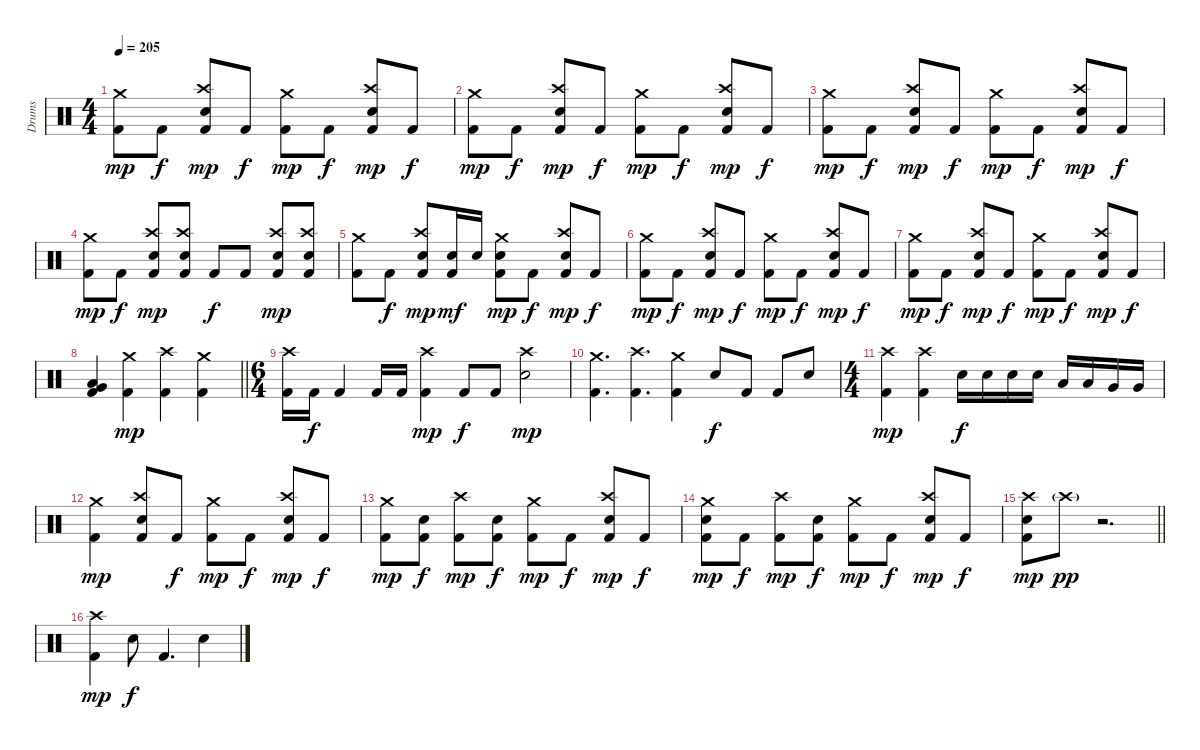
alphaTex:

\track ("Drums" "Drums") {instrument percussion}
\staff {score}
\articulation defaults
\ts (4 4)
\tempo 205
\clef neutral
\ks c
("Crash medium (hit)" "Kick (hit) 2").8{dy mp} "Kick (hit) 2".8{dy f} ("Crash high (hit)" "Electric Snare (hit)" "Kick (hit) 2").8{dy mp} "Kick (hit) 2".8{dy f} ("Crash medium (hit)" "Kick (hit) 2").8{dy mp} "Kick (hit) 2".8{dy f} ("Crash high (hit)" "Electric Snare (hit)" "Kick (hit) 2").8{dy mp} "Kick (hit) 2".8{dy f} |
("Crash medium (hit)" "Kick (hit) 2").8{dy mp} "Kick (hit) 2".8{dy f} ("Crash high (hit)" "Electric Snare (hit)" "Kick (hit) 2").8{dy mp} "Kick (hit) 2".8{dy f} ("Crash medium (hit)" "Kick (hit) 2").8{dy mp} "Kick (hit) 2".8{dy f} ("Crash high (hit)" "Electric Snare (hit)" "Kick (hit) 2").8{dy mp} "Kick (hit) 2".8{dy f} |
("Crash medium (hit)" "Kick (hit) 2").8{dy mp} "Kick (hit) 2".8{dy f} ("Crash high (hit)" "Electric Snare (hit)" "Kick (hit) 2").8{dy mp} "Kick (hit) 2".8{dy f} ("Crash medium (hit)" "Kick (hit) 2").8{dy mp} "Kick (hit) 2".8{dy f} ("Crash high (hit)" "Electric Snare (hit)" "Kick (hit) 2").8{dy mp} "Kick (hit) 2".8{dy f} |
("Crash medium (hit)" "Kick (hit) 2").8{dy mp} "Kick (hit) 2".8{dy f} ("Crash high (hit)" "Electric Snare (hit)" "Kick (hit) 2").8{dy mp} ("Crash high (hit)" "Electric Snare (hit)" "Kick (hit) 2").8 "Kick (hit) 2".8{dy f} "Kick (hit) 2".8 ("Crash high (hit)" "Electric Snare (hit)" "Kick (hit) 2").8{dy mp} ("Crash high (hit)" "Electric Snare (hit)" "Kick (hit) 2").8 |
("Crash medium (hit)" "Kick (hit) 2").8 "Kick (hit) 2".8{dy f} ("Crash high (hit)" "Electric Snare (hit)" "Kick (hit) 2").8{dy mp} ("Electric Snare (hit)" "Kick (hit) 2").16{dy mf} "Electric Snare (hit)".16 ("Crash medium (hit)" "Electric Snare (hit)" "Kick (hit) 2").8{dy mp} "Kick (hit) 2".8{dy f} ("Crash high (hit)" "Electric Snare (hit)" "Kick (hit) 2").8{dy mp} "Kick (hit) 2".8{dy f} |
("Crash medium (hit)" "Kick (hit) 2").8{dy mp} "Kick (hit) 2".8{dy f} ("Crash high (hit)" "Electric Snare (hit)" "Kick (hit) 2").8{dy mp} "Kick (hit) 2".8{dy f} ("Crash medium (hit)" "Kick (hit) 2").8{dy mp} "Kick (hit) 2".8{dy f} ("Crash high (hit)" "Electric Snare (hit)" "Kick (hit) 2").8{dy mp} "Kick (hit) 2".8{dy f} |
("Crash medium (hit)" "Kick (hit) 2").8{dy mp} "Kick (hit) 2".8{dy f} ("Crash high (hit)" "Electric Snare (hit)" "Kick (hit) 2").8{dy mp} "Kick (hit) 2".8{dy f} ("Crash medium (hit)" "Kick (hit) 2").8{dy mp} "Kick (hit) 2".8{dy f} ("Crash high (hit)" "Electric Snare (hit)" "Kick (hit) 2").8{dy mp} "Kick (hit) 2".8{dy f} |
\barLineRight lightlight
("Low Tom (hit)" "Very Low Tom (hit)" "Kick (hit) 2").4{bu 60} ("Crash medium (hit)" "Kick (hit) 2").4{dy mp} ("Crash high (hit)" "Kick (hit) 2").4 ("Crash medium (hit)" "Kick (hit) 2").4 |
\ts (6 4)
("Crash high (hit)" "Kick (hit) 2").16 "Kick (hit) 2".16{dy f} "Kick (hit) 2".4 "Kick (hit) 2".16 "Kick (hit) 2".16 ("Crash high (hit)" "Kick (hit) 2").4{dy mp} "Kick (hit) 2".8{dy f} "Kick (hit) 2".8 ("Crash high (hit)" "Electric Snare (hit)").2{dy mp} |
("Crash medium (hit)" "Kick (hit) 2").4{d} ("Crash high (hit)" "Kick (hit) 2").4{d} ("Crash medium (hit)" "Kick (hit) 2").4 "Electric Snare (hit)".8{dy f} "Kick (hit) 2".8 "Kick (hit) 2".8 "Electric Snare (hit)".8 |
\ts (4 4)
("Crash high (hit)" "Kick (hit) 2").4{dy mp} ("Crash high (hit)" "Kick (hit) 2").4 "Electric Snare (hit)".16{dy f} "Electric Snare (hit)".16 "Electric Snare (hit)".16 "Electric Snare (hit)".16 "Low Tom (hit)".16 "Low Tom (hit)".16 "Very Low Tom (hit)".16 "Very Low Tom (hit)".16 |
("Crash medium (hit)" "Kick (hit) 2").4{dy mp} ("Crash high (hit)" "Electric Snare (hit)" "Kick (hit) 2").8 "Kick (hit) 2".8{dy f} ("Crash medium (hit)" "Kick (hit) 2").8{dy mp} "Kick (hit) 2".8{dy f} ("Crash high (hit)" "Electric Snare (hit)" "Kick (hit) 2").8{dy mp} "Kick (hit) 2".8{dy f} |
("Crash medium (hit)" "Kick (hit) 2").8{dy mp} ("Electric Snare (hit)" "Kick (hit) 2").8{dy f} ("Crash high (hit)" "Kick (hit) 2").8{dy mp} ("Electric Snare (hit)" "Kick (hit) 2").8{dy f} ("Crash medium (hit)" "Kick (hit) 2").8{dy mp} "Kick (hit) 2".8{dy f} ("Crash high (hit)" "Electric Snare (hit)" "Kick (hit) 2").8{dy mp} "Kick (hit) 2".8{dy f} |
("Crash medium (hit)" "Electric Snare (hit)" "Kick (hit) 2").8{dy mp} "Kick (hit) 2".8{dy f} ("Crash high (hit)" "Kick (hit) 2").8{dy mp} ("Electric Snare (hit)" "Kick (hit) 2").8{dy f} ("Crash medium (hit)" "Kick (hit) 2").8{dy mp} "Kick (hit) 2".8{dy f} ("Crash high (hit)" "Electric Snare (hit)" "Kick (hit) 2").8{dy mp} "Kick (hit) 2".8{dy f} |
\barLineRight lightlight
("Crash high (hit)" "Electric Snare (hit)" "Kick (hit) 2").8{dy mp} "Crash high (hit)"{g}.8{dy pp} r.2{d} |
("Crash high (hit)" "Kick (hit) 2").4{dy mp} "Electric Snare (hit)".8{dy f} "Kick (hit) 2".4{d} "Electric Snare (hit)".4
